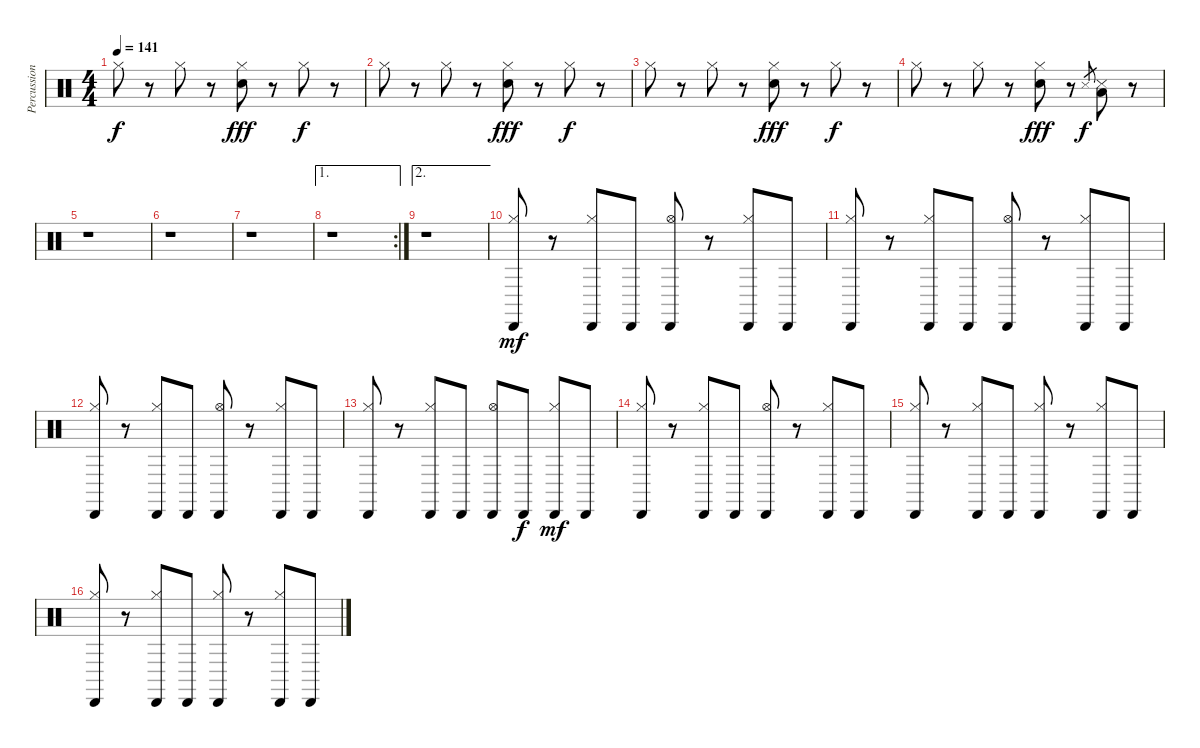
\track ("Percussion" "Percussion") {instrument percussion}
\staff {score}
\articulation defaults
\ts (4 4)
\tempo 141
\clef neutral
\ks c "Hi-Hat (closed)".8{dy f}
r.8 "Hi-Hat (closed)".8 r.8 ("Hi-Hat (closed)" "Snare (hit) 2").8{dy fff} r.8 "Hi-Hat (closed)".8{dy f} r.8 |
"Hi-Hat (closed)".8 r.8 "Hi-Hat (closed)".8 r.8 ("Hi-Hat (closed)" "Snare (hit) 2").8{dy fff} r.8 "Hi-Hat (closed)".8{dy f} r.8 |
"Hi-Hat (closed)".8 r.8 "Hi-Hat (closed)".8 r.8 ("Hi-Hat (closed)" "Snare (hit) 2").8{dy fff} r.8 "Hi-Hat (closed)".8{dy f} r.8 |
"Hi-Hat (closed)".8 r.8 "Hi-Hat (closed)".8 r.8 ("Hi-Hat (closed)" "Snare (hit) 2").8{dy fff} r.8 "Snare (side stick) 3".8{gr dy f} ("Low Tom (hit)" "Snare (side stick) 3").8 r.8 |
r.1 |
r.1 |
r.1 |
\ae 1
\rc 2
r.1 |
\ae 2
r.1 |
("Hi-Hat (closed)" "Cabasa (hit)").8{dy mf} r.8 ("Hi-Hat (closed)" "Cabasa (hit)").8 "Cabasa (hit)".8 ("Hi-Hat (open)" "Cabasa (hit)").8 r.8 ("Hi-Hat (closed)" "Cabasa (hit)").8 "Cabasa (hit)".8 |
("Hi-Hat (closed)" "Cabasa (hit)").8 r.8 ("Hi-Hat (closed)" "Cabasa (hit)").8 "Cabasa (hit)".8 ("Hi-Hat (open)" "Cabasa (hit)").8 r.8 ("Hi-Hat (closed)" "Cabasa (hit)").8 "Cabasa (hit)".8 |
("Hi-Hat (closed)" "Cabasa (hit)").8 r.8 ("Hi-Hat (closed)" "Cabasa (hit)").8 "Cabasa (hit)".8 ("Hi-Hat (open)" "Cabasa (hit)").8 r.8 ("Hi-Hat (closed)" "Cabasa (hit)").8 "Cabasa (hit)".8 |
("Hi-Hat (closed)" "Cabasa (hit)").8 r.8 ("Hi-Hat (closed)" "Cabasa (hit)").8 "Cabasa (hit)".8 ("Hi-Hat (open)" "Cabasa (hit)").8 "Cabasa (hit)".8{dy f} ("Hi-Hat (closed)" "Cabasa (hit)").8{dy mf} "Cabasa (hit)".8 |
("Hi-Hat (closed)" "Cabasa (hit)").8 r.8 ("Hi-Hat (closed)" "Cabasa (hit)").8 "Cabasa (hit)".8 ("Hi-Hat (open)" "Cabasa (hit)").8 r.8 ("Hi-Hat (closed)" "Cabasa (hit)").8 "Cabasa (hit)".8 |
("Hi-Hat (closed)" "Cabasa (hit)").8 r.8 ("Hi-Hat (closed)" "Cabasa (hit)").8 "Cabasa (hit)".8 ("Hi-Hat (closed)" "Cabasa (hit)").8 r.8 ("Hi-Hat (closed)" "Cabasa (hit)").8 "Cabasa (hit)".8 |
("Hi-Hat (closed)" "Cabasa (hit)").8 r.8 ("Hi-Hat (closed)" "Cabasa (hit)").8 "Cabasa (hit)".8 ("Hi-Hat (closed)" "Cabasa (hit)").8 r.8 ("Hi-Hat (closed)" "Cabasa (hit)").8 "Cabasa (hit)".8
